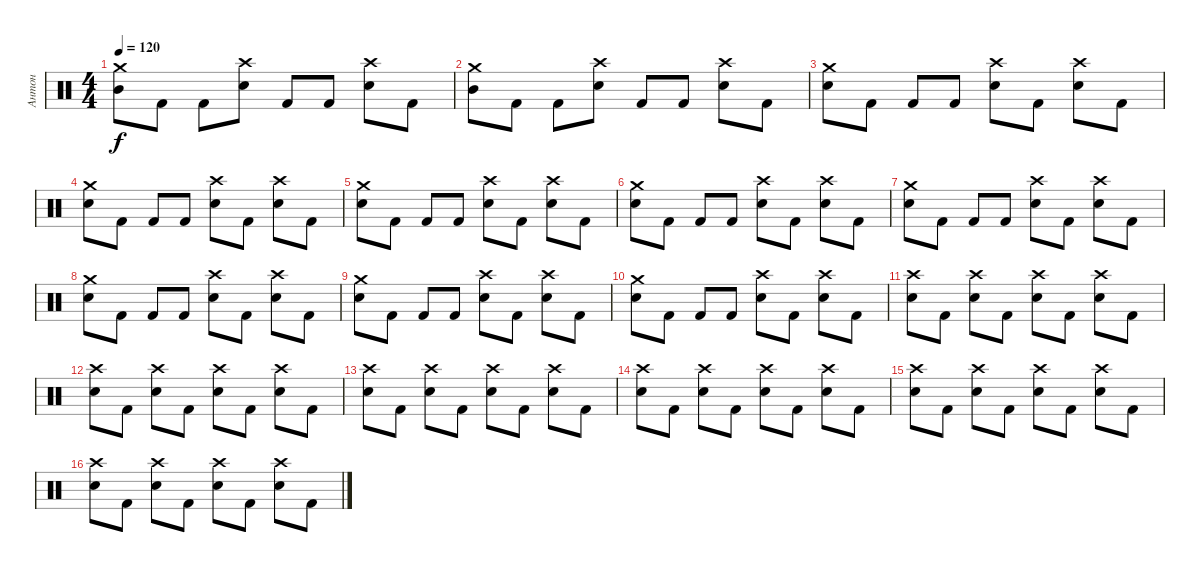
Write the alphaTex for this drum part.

\track ("Антон" "Антон") {instrument percussion}
\staff {score}
\articulation defaults
\ts (4 4)
\tempo 120
\clef neutral
\ks c
("Crash medium (hit)" "Mid Tom (hit)").8{dy f} "Kick (hit) 2".8 "Kick (hit) 2".8 ("Crash high (hit)" "Electric Snare (hit)").8 "Kick (hit) 2".8 "Kick (hit) 2".8 ("Crash high (hit)" "Electric Snare (hit)").8 "Kick (hit) 2".8 |
("Crash medium (hit)" "Mid Tom (hit)").8 "Kick (hit) 2".8 "Kick (hit) 2".8 ("Crash high (hit)" "Electric Snare (hit)").8 "Kick (hit) 2".8 "Kick (hit) 2".8 ("Crash high (hit)" "Electric Snare (hit)").8 "Kick (hit) 2".8 |
("Crash medium (hit)" "Electric Snare (hit)").8 "Kick (hit) 2".8 "Kick (hit) 2".8 "Kick (hit) 2".8 ("Crash high (hit)" "Electric Snare (hit)").8 "Kick (hit) 2".8 ("Crash high (hit)" "Electric Snare (hit)").8 "Kick (hit) 2".8 |
("Crash medium (hit)" "Electric Snare (hit)").8 "Kick (hit) 2".8 "Kick (hit) 2".8 "Kick (hit) 2".8 ("Crash high (hit)" "Electric Snare (hit)").8 "Kick (hit) 2".8 ("Crash high (hit)" "Electric Snare (hit)").8 "Kick (hit) 2".8 |
("Crash medium (hit)" "Electric Snare (hit)").8 "Kick (hit) 2".8 "Kick (hit) 2".8 "Kick (hit) 2".8 ("Crash high (hit)" "Electric Snare (hit)").8 "Kick (hit) 2".8 ("Crash high (hit)" "Electric Snare (hit)").8 "Kick (hit) 2".8 |
("Crash medium (hit)" "Electric Snare (hit)").8 "Kick (hit) 2".8 "Kick (hit) 2".8 "Kick (hit) 2".8 ("Crash high (hit)" "Electric Snare (hit)").8 "Kick (hit) 2".8 ("Crash high (hit)" "Electric Snare (hit)").8 "Kick (hit) 2".8 |
("Crash medium (hit)" "Electric Snare (hit)").8 "Kick (hit) 2".8 "Kick (hit) 2".8 "Kick (hit) 2".8 ("Crash high (hit)" "Electric Snare (hit)").8 "Kick (hit) 2".8 ("Crash high (hit)" "Electric Snare (hit)").8 "Kick (hit) 2".8 |
("Crash medium (hit)" "Electric Snare (hit)").8 "Kick (hit) 2".8 "Kick (hit) 2".8 "Kick (hit) 2".8 ("Crash high (hit)" "Electric Snare (hit)").8 "Kick (hit) 2".8 ("Crash high (hit)" "Electric Snare (hit)").8 "Kick (hit) 2".8 |
("Crash medium (hit)" "Electric Snare (hit)").8 "Kick (hit) 2".8 "Kick (hit) 2".8 "Kick (hit) 2".8 ("Crash high (hit)" "Electric Snare (hit)").8 "Kick (hit) 2".8 ("Crash high (hit)" "Electric Snare (hit)").8 "Kick (hit) 2".8 |
("Crash medium (hit)" "Electric Snare (hit)").8 "Kick (hit) 2".8 "Kick (hit) 2".8 "Kick (hit) 2".8 ("Crash high (hit)" "Electric Snare (hit)").8 "Kick (hit) 2".8 ("Crash high (hit)" "Electric Snare (hit)").8 "Kick (hit) 2".8 |
("Crash high (hit)" "Electric Snare (hit)").8 "Kick (hit) 2".8 ("Crash high (hit)" "Electric Snare (hit)").8 "Kick (hit) 2".8 ("Crash high (hit)" "Electric Snare (hit)").8 "Kick (hit) 2".8 ("Crash high (hit)" "Electric Snare (hit)").8 "Kick (hit) 2".8 |
("Crash high (hit)" "Electric Snare (hit)").8 "Kick (hit) 2".8 ("Crash high (hit)" "Electric Snare (hit)").8 "Kick (hit) 2".8 ("Crash high (hit)" "Electric Snare (hit)").8 "Kick (hit) 2".8 ("Crash high (hit)" "Electric Snare (hit)").8 "Kick (hit) 2".8 |
("Crash high (hit)" "Electric Snare (hit)").8 "Kick (hit) 2".8 ("Crash high (hit)" "Electric Snare (hit)").8 "Kick (hit) 2".8 ("Crash high (hit)" "Electric Snare (hit)").8 "Kick (hit) 2".8 ("Crash high (hit)" "Electric Snare (hit)").8 "Kick (hit) 2".8 |
("Crash high (hit)" "Electric Snare (hit)").8 "Kick (hit) 2".8 ("Crash high (hit)" "Electric Snare (hit)").8 "Kick (hit) 2".8 ("Crash high (hit)" "Electric Snare (hit)").8 "Kick (hit) 2".8 ("Crash high (hit)" "Electric Snare (hit)").8 "Kick (hit) 2".8 |
("Crash high (hit)" "Electric Snare (hit)").8 "Kick (hit) 2".8 ("Crash high (hit)" "Electric Snare (hit)").8 "Kick (hit) 2".8 ("Crash high (hit)" "Electric Snare (hit)").8 "Kick (hit) 2".8 ("Crash high (hit)" "Electric Snare (hit)").8 "Kick (hit) 2".8 |
("Crash high (hit)" "Electric Snare (hit)").8 "Kick (hit) 2".8 ("Crash high (hit)" "Electric Snare (hit)").8 "Kick (hit) 2".8 ("Crash high (hit)" "Electric Snare (hit)").8 "Kick (hit) 2".8 ("Crash high (hit)" "Electric Snare (hit)").8 "Kick (hit) 2".8
